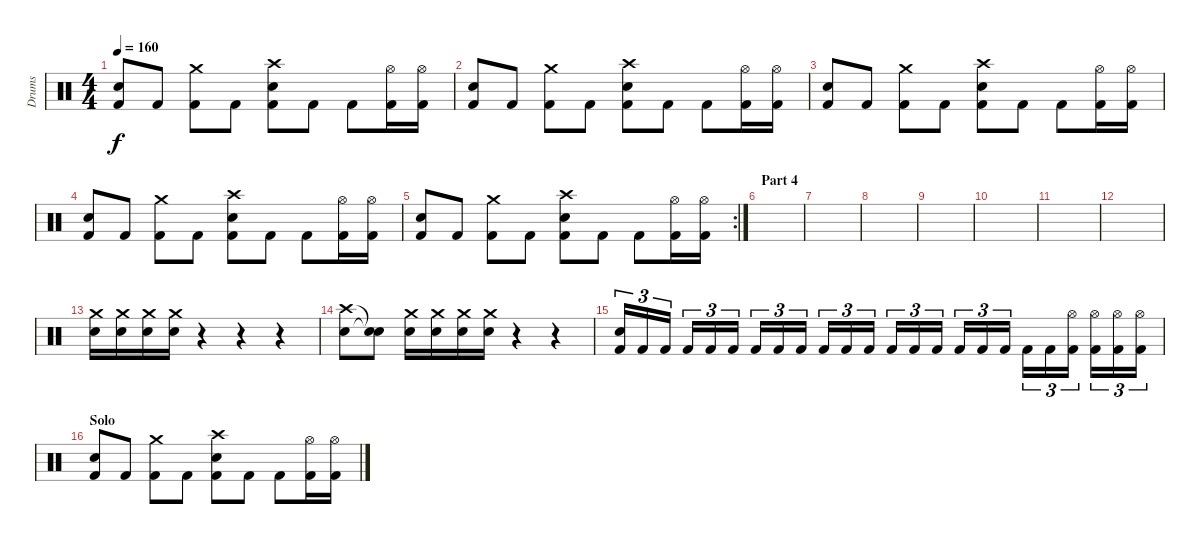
\track ("Drums" "Drums") {instrument percussion}
\staff {score}
\articulation defaults
\ts (4 4)
\tempo 160
\clef neutral
\ks c
("Kick (hit) 2" "Electric Snare (hit)").8{dy f} "Kick (hit) 2".8 ("Kick (hit) 2" "Crash medium (hit)").8 "Kick (hit) 2".8 ("Kick (hit) 2" "Crash high (hit)" "Electric Snare (hit)").8 "Kick (hit) 2".8 "Kick (hit) 2".8 ("Kick (hit) 2" "Hi-Hat (open)").16 ("Kick (hit) 2" "Hi-Hat (open)").16 |
("Kick (hit) 2" "Electric Snare (hit)").8 "Kick (hit) 2".8 ("Kick (hit) 2" "Crash medium (hit)").8 "Kick (hit) 2".8 ("Kick (hit) 2" "Crash high (hit)" "Electric Snare (hit)").8 "Kick (hit) 2".8 "Kick (hit) 2".8 ("Kick (hit) 2" "Hi-Hat (open)").16 ("Kick (hit) 2" "Hi-Hat (open)").16 |
("Kick (hit) 2" "Electric Snare (hit)").8 "Kick (hit) 2".8 ("Kick (hit) 2" "Crash medium (hit)").8 "Kick (hit) 2".8 ("Kick (hit) 2" "Crash high (hit)" "Electric Snare (hit)").8 "Kick (hit) 2".8 "Kick (hit) 2".8 ("Kick (hit) 2" "Hi-Hat (open)").16 ("Kick (hit) 2" "Hi-Hat (open)").16 |
("Kick (hit) 2" "Electric Snare (hit)").8 "Kick (hit) 2".8 ("Kick (hit) 2" "Crash medium (hit)").8 "Kick (hit) 2".8 ("Kick (hit) 2" "Crash high (hit)" "Electric Snare (hit)").8 "Kick (hit) 2".8 "Kick (hit) 2".8 ("Kick (hit) 2" "Hi-Hat (open)").16 ("Kick (hit) 2" "Hi-Hat (open)").16 |
\rc 2
("Kick (hit) 2" "Electric Snare (hit)").8 "Kick (hit) 2".8 ("Kick (hit) 2" "Crash medium (hit)").8 "Kick (hit) 2".8 ("Kick (hit) 2" "Crash high (hit)" "Electric Snare (hit)").8 "Kick (hit) 2".8 "Kick (hit) 2".8 ("Kick (hit) 2" "Hi-Hat (open)").16 ("Kick (hit) 2" "Hi-Hat (open)").16 |
\section ("" "Part 4")
|
|
|
|
|
|
|
("Crash medium (hit)" "Electric Snare (hit)").16 ("Crash medium (hit)" "Electric Snare (hit)").16 ("Crash medium (hit)" "Electric Snare (hit)").16 ("Crash medium (hit)" "Electric Snare (hit)").16 r.4 r.4 r.4 |
("Electric Snare (hit)" "Crash high (hit)").8 ("Snare (hit)"{t} "Snare (hit)"{t}).8 ("Crash medium (hit)" "Electric Snare (hit)").16 ("Crash medium (hit)" "Electric Snare (hit)").16 ("Crash medium (hit)" "Electric Snare (hit)").16 ("Crash medium (hit)" "Electric Snare (hit)").16 r.4 r.4 |
("Kick (hit) 2" "Electric Snare (hit)").16{tu (3 2)} "Kick (hit) 2".16{tu (3 2)} "Kick (hit) 2".16{tu (3 2)} "Kick (hit) 2".16{tu (3 2)} "Kick (hit) 2".16{tu (3 2)} "Kick (hit) 2".16{tu (3 2)} "Kick (hit) 2".16{tu (3 2)} "Kick (hit) 2".16{tu (3 2)} "Kick (hit) 2".16{tu (3 2)} "Kick (hit) 2".16{tu (3 2)} "Kick (hit) 2".16{tu (3 2)} "Kick (hit) 2".16{tu (3 2)} "Kick (hit) 2".16{tu (3 2)} "Kick (hit) 2".16{tu (3 2)} "Kick (hit) 2".16{tu (3 2)} "Kick (hit) 2".16{tu (3 2)} "Kick (hit) 2".16{tu (3 2)} "Kick (hit) 2".16{tu (3 2)} "Kick (hit) 2".16{tu (3 2)} "Kick (hit) 2".16{tu (3 2)} ("Kick (hit) 2" "Hi-Hat (open)").16{tu (3 2)} ("Kick (hit) 2" "Hi-Hat (open)").16{tu (3 2)} ("Kick (hit) 2" "Hi-Hat (open)").16{tu (3 2)} ("Kick (hit) 2" "Hi-Hat (open)").16{tu (3 2)} |
\section ("" "Solo")
("Kick (hit) 2" "Electric Snare (hit)").8 "Kick (hit) 2".8 ("Kick (hit) 2" "Crash medium (hit)").8 "Kick (hit) 2".8 ("Kick (hit) 2" "Crash high (hit)" "Electric Snare (hit)").8 "Kick (hit) 2".8 "Kick (hit) 2".8 ("Kick (hit) 2" "Hi-Hat (open)").16 ("Kick (hit) 2" "Hi-Hat (open)").16
